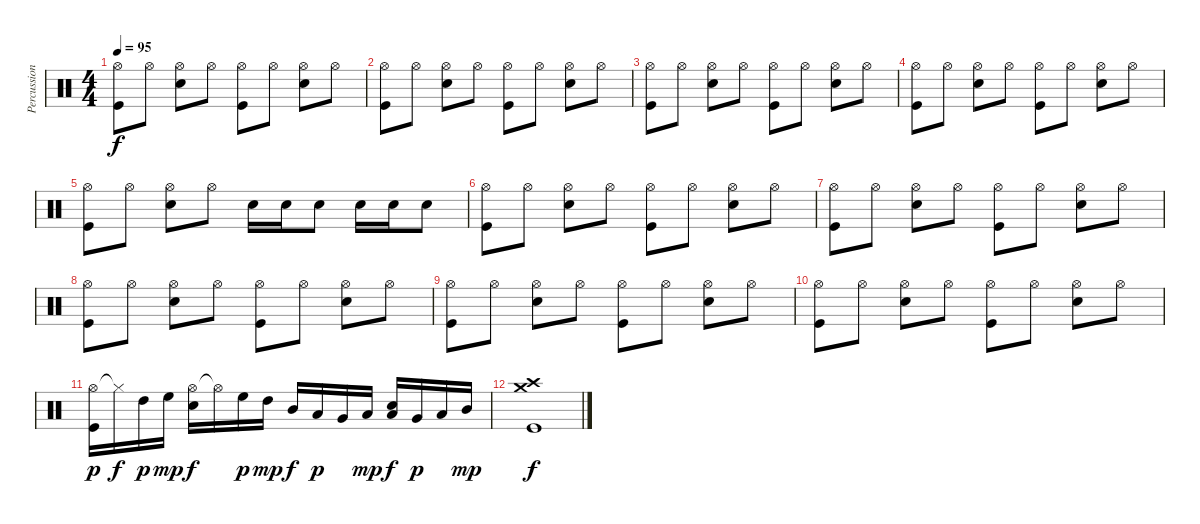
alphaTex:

\track ("Percussion" "Percussion") {instrument percussion}
\staff {score}
\articulation defaults
\ts (4 4)
\tempo 95
\clef neutral
\ks c
("Hi-Hat (open)" "Kick (hit)").8{dy f} "Hi-Hat (open)".8 ("Hi-Hat (open)" "Electric Snare (hit)").8 "Hi-Hat (open)".8 ("Hi-Hat (open)" "Kick (hit)").8 "Hi-Hat (open)".8 ("Hi-Hat (open)" "Electric Snare (hit)").8 "Hi-Hat (open)".8 |
("Hi-Hat (open)" "Kick (hit)").8 "Hi-Hat (open)".8 ("Hi-Hat (open)" "Electric Snare (hit)").8 "Hi-Hat (open)".8 ("Hi-Hat (open)" "Kick (hit)").8 "Hi-Hat (open)".8 ("Hi-Hat (open)" "Electric Snare (hit)").8 "Hi-Hat (open)".8 |
("Hi-Hat (open)" "Kick (hit)").8 "Hi-Hat (open)".8 ("Hi-Hat (open)" "Electric Snare (hit)").8 "Hi-Hat (open)".8 ("Hi-Hat (open)" "Kick (hit)").8 "Hi-Hat (open)".8 ("Hi-Hat (open)" "Electric Snare (hit)").8 "Hi-Hat (open)".8 |
("Hi-Hat (open)" "Kick (hit)").8 "Hi-Hat (open)".8 ("Hi-Hat (open)" "Electric Snare (hit)").8 "Hi-Hat (open)".8 ("Hi-Hat (open)" "Kick (hit)").8 "Hi-Hat (open)".8 ("Hi-Hat (open)" "Electric Snare (hit)").8 "Hi-Hat (open)".8 |
("Hi-Hat (open)" "Kick (hit)").8 "Hi-Hat (open)".8 ("Hi-Hat (open)" "Electric Snare (hit)").8 "Hi-Hat (open)".8 "Electric Snare (hit)".16 "Electric Snare (hit)".16 "Snare (hit) 2".8 "Electric Snare (hit)".16 "Electric Snare (hit)".16 "Snare (hit) 2".8 |
("Hi-Hat (open)" "Kick (hit)").8 "Hi-Hat (open)".8 ("Hi-Hat (open)" "Electric Snare (hit)").8 "Hi-Hat (open)".8 ("Hi-Hat (open)" "Kick (hit)").8 "Hi-Hat (open)".8 ("Hi-Hat (open)" "Electric Snare (hit)").8 "Hi-Hat (open)".8 |
("Hi-Hat (open)" "Kick (hit)").8 "Hi-Hat (open)".8 ("Hi-Hat (open)" "Electric Snare (hit)").8 "Hi-Hat (open)".8 ("Hi-Hat (open)" "Kick (hit)").8 "Hi-Hat (open)".8 ("Hi-Hat (open)" "Electric Snare (hit)").8 "Hi-Hat (open)".8 |
("Hi-Hat (open)" "Kick (hit)").8 "Hi-Hat (open)".8 ("Hi-Hat (open)" "Electric Snare (hit)").8 "Hi-Hat (open)".8 ("Hi-Hat (open)" "Kick (hit)").8 "Hi-Hat (open)".8 ("Hi-Hat (open)" "Electric Snare (hit)").8 "Hi-Hat (open)".8 |
("Hi-Hat (open)" "Kick (hit)").8 "Hi-Hat (open)".8 ("Hi-Hat (open)" "Electric Snare (hit)").8 "Hi-Hat (open)".8 ("Hi-Hat (open)" "Kick (hit)").8 "Hi-Hat (open)".8 ("Hi-Hat (open)" "Electric Snare (hit)").8 "Hi-Hat (open)".8 |
("Hi-Hat (open)" "Kick (hit)").8 "Hi-Hat (open)".8 ("Hi-Hat (open)" "Electric Snare (hit)").8 "Hi-Hat (open)".8 ("Hi-Hat (open)" "Kick (hit)").8 "Hi-Hat (open)".8 ("Hi-Hat (open)" "Electric Snare (hit)").8 "Hi-Hat (open)".8 |
("Hi-Hat (open)" "Kick (hit)").16{dy p} "Hi-Hat (closed)"{t}.16{dy f} "High Tom (hit)".16{dy p} "High Floor Tom (hit)".16{dy mp} ("Hi-Hat (open)" "Snare (hit) 2").16{dy f} "Hi-Hat (open)"{t}.16 "High Floor Tom (hit)".16{dy p} "High Tom (hit)".16{dy mp} "Mid Tom (hit)".16{dy f} "Low Tom (hit)".16{dy p} "Very Low Tom (hit)".16 "Low Floor Tom (hit)".16{dy mp} ("Low Floor Tom (hit)" "Snare (hit) 2").16{dy f} "Very Low Tom (hit)".16{dy p} "Low Tom (hit)".16 "Mid Tom (hit)".16{dy mp} |
("Crash high (hit)" "Crash medium (hit)" "Kick (hit)").1{dy f}
